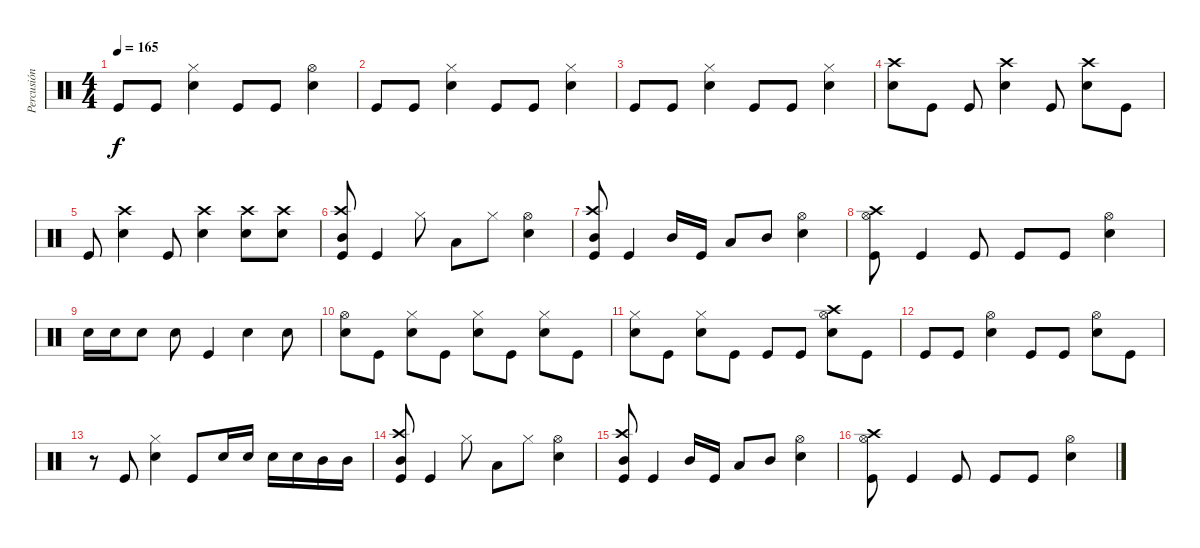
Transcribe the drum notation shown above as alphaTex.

\track ("Percusión" "Percusión") {instrument percussion}
\staff {score}
\articulation defaults
\ts (4 4)
\tempo 165
\clef neutral
\ks c "Kick (hit)".8{dy f} "Kick (hit)".8
("Electric Snare (hit)" "Hi-Hat (closed)").4 "Kick (hit)".8 "Kick (hit)".8 ("Electric Snare (hit)" "Hi-Hat (open)").4 |
"Kick (hit)".8 "Kick (hit)".8 ("Hi-Hat (closed)" "Electric Snare (hit)").4 "Kick (hit)".8 "Kick (hit)".8 ("Hi-Hat (closed)" "Electric Snare (hit)").4 |
"Kick (hit)".8 "Kick (hit)".8 ("Hi-Hat (closed)" "Electric Snare (hit)").4 "Kick (hit)".8 "Kick (hit)".8 ("Hi-Hat (closed)" "Electric Snare (hit)").4 |
("Electric Snare (hit)" "Crash high (hit)").8 "Kick (hit)".8 "Kick (hit)".8 ("Electric Snare (hit)" "Crash high (hit)").4 "Kick (hit)".8 ("Crash high (hit)" "Electric Snare (hit)").8 "Kick (hit)".8 |
"Kick (hit)".8 ("Crash high (hit)" "Electric Snare (hit)").4 "Kick (hit)".8 ("Crash high (hit)" "Electric Snare (hit)").4 ("Crash high (hit)" "Electric Snare (hit)").8 ("Electric Snare (hit)" "Crash high (hit)").8 |
("Mid Tom (hit)" "Kick (hit)" "Crash high (hit)").8 "Kick (hit)".4 "Hi-Hat (closed)".8 "Low Tom (hit)".8 "Hi-Hat (closed)".8 ("Hi-Hat (open)" "Electric Snare (hit)").4 |
("Mid Tom (hit)" "Crash high (hit)" "Kick (hit)").8 "Kick (hit)".4 "Mid Tom (hit)".16 "Kick (hit)".16 "Low Tom (hit)".8 "Mid Tom (hit)".8 ("Hi-Hat (open)" "Electric Snare (hit)").4 |
("Hi-Hat (open)" "Crash high (hit)" "Kick (hit)").8 "Kick (hit)".4 "Kick (hit)".8 "Kick (hit)".8 "Kick (hit)".8 ("Hi-Hat (open)" "Electric Snare (hit)").4 |
"Electric Snare (hit)".16 "Electric Snare (hit)".16 "Electric Snare (hit)".8 "Electric Snare (hit)".8 "Kick (hit)".4 "Electric Snare (hit)".4 "Electric Snare (hit)".8 |
("Electric Snare (hit)" "Hi-Hat (open)").8 "Kick (hit)".8 ("Hi-Hat (closed)" "Electric Snare (hit)").8 "Kick (hit)".8 ("Hi-Hat (closed)" "Electric Snare (hit)").8 "Kick (hit)".8 ("Hi-Hat (closed)" "Electric Snare (hit)").8 "Kick (hit)".8 |
("Hi-Hat (closed)" "Electric Snare (hit)").8 "Kick (hit)".8 ("Hi-Hat (closed)" "Electric Snare (hit)").8 "Kick (hit)".8 "Kick (hit)".8 "Kick (hit)".8 ("Crash high (hit)" "Hi-Hat (open)" "Electric Snare (hit)").8 "Kick (hit)".8 |
"Kick (hit)".8 "Kick (hit)".8 ("Hi-Hat (open)" "Electric Snare (hit)").4 "Kick (hit)".8 "Kick (hit)".8 ("Electric Snare (hit)" "Hi-Hat (open)").8 "Kick (hit)".8 |
r.8 "Kick (hit)".8 ("Hi-Hat (closed)" "Electric Snare (hit)").4 "Kick (hit)".8 "Electric Snare (hit)".16 "Electric Snare (hit)".16 "Electric Snare (hit)".16 "Electric Snare (hit)".16 "Mid Tom (hit)".16 "Mid Tom (hit)".16 |
("Mid Tom (hit)" "Kick (hit)" "Crash high (hit)").8 "Kick (hit)".4 "Hi-Hat (closed)".8 "Low Tom (hit)".8 "Hi-Hat (closed)".8 ("Hi-Hat (open)" "Electric Snare (hit)").4 |
("Mid Tom (hit)" "Crash high (hit)" "Kick (hit)").8 "Kick (hit)".4 "Mid Tom (hit)".16 "Kick (hit)".16 "Low Tom (hit)".8 "Mid Tom (hit)".8 ("Hi-Hat (open)" "Electric Snare (hit)").4 |
("Hi-Hat (open)" "Crash high (hit)" "Kick (hit)").8 "Kick (hit)".4 "Kick (hit)".8 "Kick (hit)".8 "Kick (hit)".8 ("Hi-Hat (open)" "Electric Snare (hit)").4
